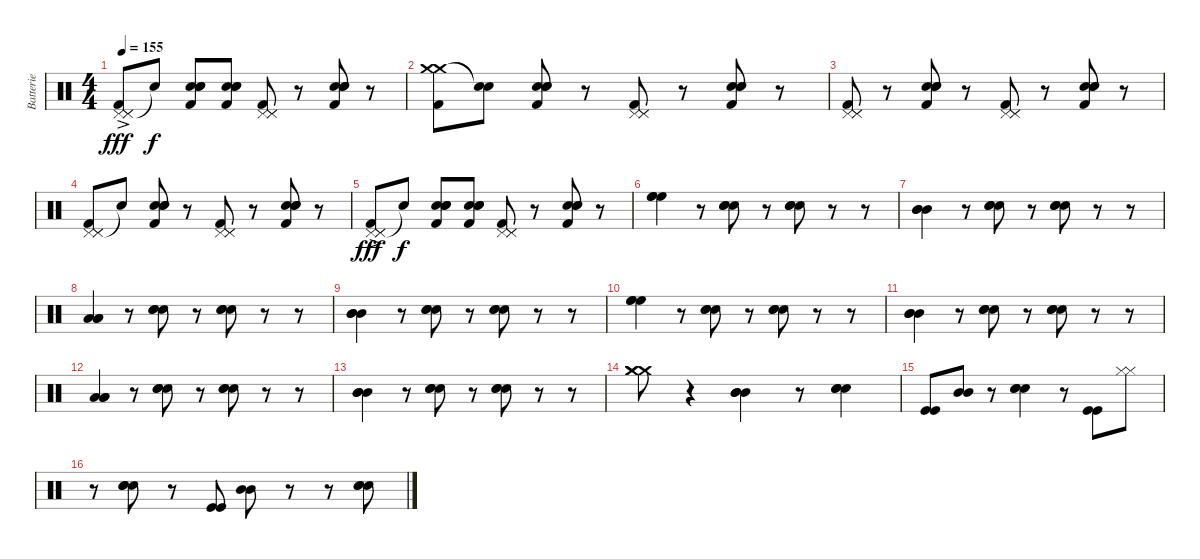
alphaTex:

\track ("Batterie" "Batterie") {instrument percussion}
\staff {score}
\articulation defaults
\ts (4 4)
\tempo 155
\clef neutral
\ks c
("Pedal Hi-Hat (hit)"{ac} "Pedal Hi-Hat (hit)" "Pedal Hi-Hat (hit)" "Kick (hit) 2").8{dy fff} "Snare (hit)"{t}.8{dy f} ("Electric Snare (hit)" "Electric Snare (hit)" "Electric Snare (hit)" "Kick (hit) 2").8 ("Electric Snare (hit)" "Electric Snare (hit)" "Electric Snare (hit)" "Kick (hit) 2").8 ("Pedal Hi-Hat (hit)" "Pedal Hi-Hat (hit)" "Pedal Hi-Hat (hit)" "Kick (hit) 2").8 r.8 ("Electric Snare (hit)" "Electric Snare (hit)" "Electric Snare (hit)" "Kick (hit) 2").8 r.8 |
("Crash medium (hit)" "Crash medium (hit)" "Kick (hit) 2").8 ("Snare (hit)"{t} "Snare (hit)"{t}).8 ("Electric Snare (hit)" "Electric Snare (hit)" "Electric Snare (hit)" "Kick (hit) 2").8 r.8 ("Pedal Hi-Hat (hit)" "Pedal Hi-Hat (hit)" "Pedal Hi-Hat (hit)" "Kick (hit) 2").8 r.8 ("Electric Snare (hit)" "Electric Snare (hit)" "Electric Snare (hit)" "Kick (hit) 2").8 r.8 |
("Pedal Hi-Hat (hit)" "Pedal Hi-Hat (hit)" "Pedal Hi-Hat (hit)" "Kick (hit) 2").8 r.8 ("Electric Snare (hit)" "Electric Snare (hit)" "Electric Snare (hit)" "Kick (hit) 2").8 r.8 ("Pedal Hi-Hat (hit)" "Pedal Hi-Hat (hit)" "Pedal Hi-Hat (hit)" "Kick (hit) 2").8 r.8 ("Electric Snare (hit)" "Electric Snare (hit)" "Electric Snare (hit)" "Kick (hit) 2").8 r.8 |
("Pedal Hi-Hat (hit)" "Pedal Hi-Hat (hit)" "Pedal Hi-Hat (hit)" "Kick (hit) 2").8 "Snare (hit)"{t}.8 ("Electric Snare (hit)" "Electric Snare (hit)" "Electric Snare (hit)" "Kick (hit) 2").8 r.8 ("Pedal Hi-Hat (hit)" "Pedal Hi-Hat (hit)" "Pedal Hi-Hat (hit)" "Kick (hit) 2").8 r.8 ("Electric Snare (hit)" "Electric Snare (hit)" "Electric Snare (hit)" "Kick (hit) 2").8 r.8 |
("Pedal Hi-Hat (hit)"{ac} "Pedal Hi-Hat (hit)" "Pedal Hi-Hat (hit)" "Kick (hit) 2").8{dy fff} "Snare (hit)"{t}.8{dy f} ("Electric Snare (hit)" "Electric Snare (hit)" "Electric Snare (hit)" "Kick (hit) 2").8 ("Electric Snare (hit)" "Electric Snare (hit)" "Electric Snare (hit)" "Kick (hit) 2").8 ("Pedal Hi-Hat (hit)" "Pedal Hi-Hat (hit)" "Pedal Hi-Hat (hit)" "Kick (hit) 2").8 r.8 ("Electric Snare (hit)" "Electric Snare (hit)" "Electric Snare (hit)" "Kick (hit) 2").8 r.8 |
("High Floor Tom (hit)" "High Floor Tom (hit)" "High Floor Tom (hit)").4 r.8 ("Snare (hit) 2" "Snare (hit) 2" "Snare (hit) 2").8 r.8 ("Snare (hit) 2" "Snare (hit) 2" "Snare (hit) 2").8 r.8 r.8 |
("Mid Tom (hit)" "Mid Tom (hit)" "Mid Tom (hit)").4 r.8 ("Snare (hit) 2" "Snare (hit) 2" "Snare (hit) 2").8 r.8 ("Snare (hit) 2" "Snare (hit) 2" "Snare (hit) 2").8 r.8 r.8 |
("Low Tom (hit)" "Low Tom (hit)" "Low Tom (hit)").4 r.8 ("Snare (hit) 2" "Snare (hit) 2" "Snare (hit) 2").8 r.8 ("Snare (hit) 2" "Snare (hit) 2" "Snare (hit) 2").8 r.8 r.8 |
("Mid Tom (hit)" "Mid Tom (hit)" "Mid Tom (hit)").4 r.8 ("Snare (hit) 2" "Snare (hit) 2" "Snare (hit) 2").8 r.8 ("Snare (hit) 2" "Snare (hit) 2" "Snare (hit) 2").8 r.8 r.8 |
("High Floor Tom (hit)" "High Floor Tom (hit)" "High Floor Tom (hit)").4 r.8 ("Snare (hit) 2" "Snare (hit) 2" "Snare (hit) 2").8 r.8 ("Snare (hit) 2" "Snare (hit) 2" "Snare (hit) 2").8 r.8 r.8 |
("Mid Tom (hit)" "Mid Tom (hit)" "Mid Tom (hit)").4 r.8 ("Snare (hit) 2" "Snare (hit) 2" "Snare (hit) 2").8 r.8 ("Snare (hit) 2" "Snare (hit) 2" "Snare (hit) 2").8 r.8 r.8 |
("Low Tom (hit)" "Low Tom (hit)" "Low Tom (hit)").4 r.8 ("Snare (hit) 2" "Snare (hit) 2" "Snare (hit) 2").8 r.8 ("Snare (hit) 2" "Snare (hit) 2" "Snare (hit) 2").8 r.8 r.8 |
("Mid Tom (hit)" "Mid Tom (hit)" "Mid Tom (hit)").4 r.8 ("Snare (hit) 2" "Snare (hit) 2" "Snare (hit) 2").8 r.8 ("Snare (hit) 2" "Snare (hit) 2" "Snare (hit) 2").8 r.8 r.8 |
("Crash medium (hit)" "Crash medium (hit)" "Crash medium (hit)").8 r.4 ("Mid Tom (hit)" "Mid Tom (hit)" "Mid Tom (hit)").4 r.8 ("Snare (hit) 2" "Snare (hit) 2" "Snare (hit) 2").4 |
("Kick (hit)" "Kick (hit)").8 ("Mid Tom (hit)" "Mid Tom (hit)").8 r.8 ("Snare (hit) 2" "Snare (hit) 2" "Snare (hit) 2").4 r.8 ("Kick (hit)" "Kick (hit)").8 ("Hi-Hat (closed)" "Hi-Hat (closed)").8 |
r.8 ("Snare (hit) 2" "Snare (hit) 2" "Snare (hit) 2").8 r.8 ("Kick (hit)" "Kick (hit)").8 ("Mid Tom (hit)" "Mid Tom (hit)").8 r.8 r.8 ("Snare (hit) 2" "Snare (hit) 2" "Snare (hit) 2").8
